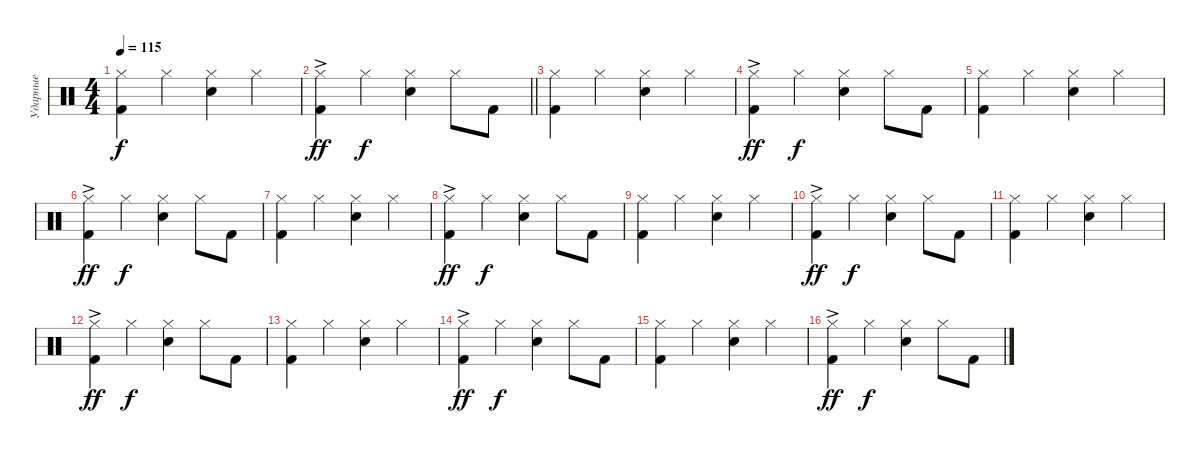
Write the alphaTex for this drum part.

\track ("Ударные" "Ударные") {instrument percussion}
\staff {score}
\articulation defaults
\ts (4 4)
\tempo 115
\clef neutral
\ks c
("Kick (hit) 2" "Hi-Hat (closed)").4{dy f} "Hi-Hat (closed)".4 ("Snare (hit) 2" "Hi-Hat (closed)").4 "Hi-Hat (closed)".4 |
\barLineRight lightlight
("Kick (hit) 2" "Hi-Hat (closed)"{ac}).4{dy ff} "Hi-Hat (closed)".4{dy f} ("Snare (hit) 2" "Hi-Hat (closed)").4 "Hi-Hat (closed)".8 "Kick (hit) 2".8 |
("Kick (hit) 2" "Hi-Hat (closed)").4 "Hi-Hat (closed)".4 ("Snare (hit) 2" "Hi-Hat (closed)").4 "Hi-Hat (closed)".4 |
("Kick (hit) 2" "Hi-Hat (closed)"{ac}).4{dy ff} "Hi-Hat (closed)".4{dy f} ("Snare (hit) 2" "Hi-Hat (closed)").4 "Hi-Hat (closed)".8 "Kick (hit) 2".8 |
("Kick (hit) 2" "Hi-Hat (closed)").4 "Hi-Hat (closed)".4 ("Snare (hit) 2" "Hi-Hat (closed)").4 "Hi-Hat (closed)".4 |
("Kick (hit) 2" "Hi-Hat (closed)"{ac}).4{dy ff} "Hi-Hat (closed)".4{dy f} ("Snare (hit) 2" "Hi-Hat (closed)").4 "Hi-Hat (closed)".8 "Kick (hit) 2".8 |
("Kick (hit) 2" "Hi-Hat (closed)").4 "Hi-Hat (closed)".4 ("Snare (hit) 2" "Hi-Hat (closed)").4 "Hi-Hat (closed)".4 |
("Kick (hit) 2" "Hi-Hat (closed)"{ac}).4{dy ff} "Hi-Hat (closed)".4{dy f} ("Snare (hit) 2" "Hi-Hat (closed)").4 "Hi-Hat (closed)".8 "Kick (hit) 2".8 |
("Kick (hit) 2" "Hi-Hat (closed)").4 "Hi-Hat (closed)".4 ("Snare (hit) 2" "Hi-Hat (closed)").4 "Hi-Hat (closed)".4 |
("Kick (hit) 2" "Hi-Hat (closed)"{ac}).4{dy ff} "Hi-Hat (closed)".4{dy f} ("Snare (hit) 2" "Hi-Hat (closed)").4 "Hi-Hat (closed)".8 "Kick (hit) 2".8 |
("Kick (hit) 2" "Hi-Hat (closed)").4 "Hi-Hat (closed)".4 ("Snare (hit) 2" "Hi-Hat (closed)").4 "Hi-Hat (closed)".4 |
("Kick (hit) 2" "Hi-Hat (closed)"{ac}).4{dy ff} "Hi-Hat (closed)".4{dy f} ("Snare (hit) 2" "Hi-Hat (closed)").4 "Hi-Hat (closed)".8 "Kick (hit) 2".8 |
("Kick (hit) 2" "Hi-Hat (closed)").4 "Hi-Hat (closed)".4 ("Snare (hit) 2" "Hi-Hat (closed)").4 "Hi-Hat (closed)".4 |
("Kick (hit) 2" "Hi-Hat (closed)"{ac}).4{dy ff} "Hi-Hat (closed)".4{dy f} ("Snare (hit) 2" "Hi-Hat (closed)").4 "Hi-Hat (closed)".8 "Kick (hit) 2".8 |
("Kick (hit) 2" "Hi-Hat (closed)").4 "Hi-Hat (closed)".4 ("Snare (hit) 2" "Hi-Hat (closed)").4 "Hi-Hat (closed)".4 |
("Kick (hit) 2" "Hi-Hat (closed)"{ac}).4{dy ff} "Hi-Hat (closed)".4{dy f} ("Snare (hit) 2" "Hi-Hat (closed)").4 "Hi-Hat (closed)".8 "Kick (hit) 2".8
